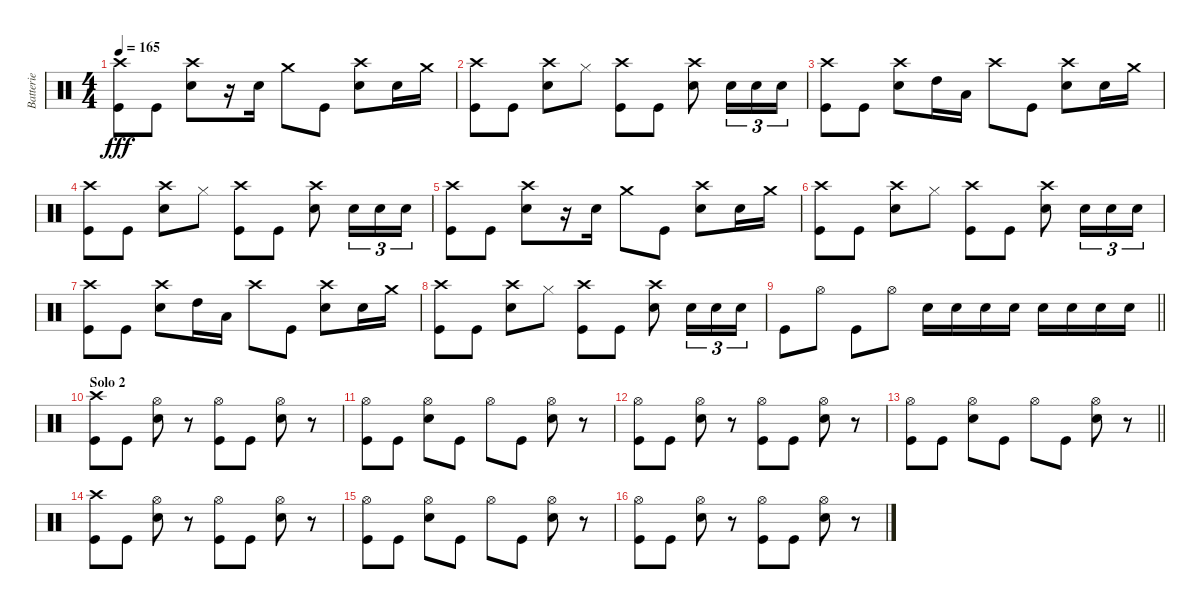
\track ("Batterie" "Batterie") {instrument percussion}
\staff {score}
\articulation defaults
\ts (4 4)
\tempo 165
\clef neutral
\ks c
("Crash high (hit)" "Kick (hit)").8{dy fff} "Kick (hit)".8 ("Crash high (hit)" "Electric Snare (hit)").8 r.16 "Snare (hit) 2".16 "Crash medium (hit)".8 "Kick (hit)".8 ("Crash high (hit)" "Electric Snare (hit)").8 "Snare (hit) 2".16 "Crash medium (hit)".16 |
("Crash high (hit)" "Kick (hit)").8 "Kick (hit)".8 ("Crash high (hit)" "Electric Snare (hit)").8 "Hi-Hat (closed)".8 ("Crash high (hit)" "Kick (hit)").8 "Kick (hit)".8 ("Crash high (hit)" "Electric Snare (hit)").8 "Electric Snare (hit)".16{tu (3 2)} "Electric Snare (hit)".16{tu (3 2)} "Electric Snare (hit)".16{tu (3 2)} |
("Crash high (hit)" "Kick (hit)").8 "Kick (hit)".8 ("Crash high (hit)" "Electric Snare (hit)").8 "High Tom (hit)".16 "Low Tom (hit)".16 "Crash high (hit)".8 "Kick (hit)".8 ("Crash high (hit)" "Electric Snare (hit)").8 "Snare (hit) 2".16 "Crash medium (hit)".16 |
("Crash high (hit)" "Kick (hit)").8 "Kick (hit)".8 ("Crash high (hit)" "Electric Snare (hit)").8 "Hi-Hat (closed)".8 ("Crash high (hit)" "Kick (hit)").8 "Kick (hit)".8 ("Crash high (hit)" "Electric Snare (hit)").8 "Electric Snare (hit)".16{tu (3 2)} "Electric Snare (hit)".16{tu (3 2)} "Electric Snare (hit)".16{tu (3 2)} |
("Crash high (hit)" "Kick (hit)").8 "Kick (hit)".8 ("Crash high (hit)" "Electric Snare (hit)").8 r.16 "Snare (hit) 2".16 "Crash medium (hit)".8 "Kick (hit)".8 ("Crash high (hit)" "Electric Snare (hit)").8 "Snare (hit) 2".16 "Crash medium (hit)".16 |
("Crash high (hit)" "Kick (hit)").8 "Kick (hit)".8 ("Crash high (hit)" "Electric Snare (hit)").8 "Hi-Hat (closed)".8 ("Crash high (hit)" "Kick (hit)").8 "Kick (hit)".8 ("Crash high (hit)" "Electric Snare (hit)").8 "Electric Snare (hit)".16{tu (3 2)} "Electric Snare (hit)".16{tu (3 2)} "Electric Snare (hit)".16{tu (3 2)} |
("Crash high (hit)" "Kick (hit)").8 "Kick (hit)".8 ("Crash high (hit)" "Electric Snare (hit)").8 "High Tom (hit)".16 "Low Tom (hit)".16 "Crash high (hit)".8 "Kick (hit)".8 ("Crash high (hit)" "Electric Snare (hit)").8 "Snare (hit) 2".16 "Crash medium (hit)".16 |
("Crash high (hit)" "Kick (hit)").8 "Kick (hit)".8 ("Crash high (hit)" "Electric Snare (hit)").8 "Hi-Hat (closed)".8 ("Crash high (hit)" "Kick (hit)").8 "Kick (hit)".8 ("Crash high (hit)" "Electric Snare (hit)").8 "Electric Snare (hit)".16{tu (3 2)} "Electric Snare (hit)".16{tu (3 2)} "Electric Snare (hit)".16{tu (3 2)} |
\barLineRight lightlight "Kick (hit)".8 "Hi-Hat (open)".8 "Kick (hit)".8 "Hi-Hat (open)".8 "Electric Snare (hit)".16 "Electric Snare (hit)".16 "Electric Snare (hit)".16 "Electric Snare (hit)".16 "Electric Snare (hit)".16 "Electric Snare (hit)".16 "Electric Snare (hit)".16 "Electric Snare (hit)".16
|
\section ("" "Solo 2")
("Crash high (hit)" "Kick (hit)").8 "Kick (hit)".8 ("Hi-Hat (open)" "Electric Snare (hit)").8 r.8 ("Hi-Hat (open)" "Kick (hit)").8 "Kick (hit)".8 ("Hi-Hat (open)" "Electric Snare (hit)").8 r.8 |
("Hi-Hat (open)" "Kick (hit)").8 "Kick (hit)".8 ("Hi-Hat (open)" "Electric Snare (hit)").8 "Kick (hit)".8 "Hi-Hat (open)".8 "Kick (hit)".8 ("Hi-Hat (open)" "Electric Snare (hit)").8 r.8 |
("Hi-Hat (open)" "Kick (hit)").8 "Kick (hit)".8 ("Hi-Hat (open)" "Electric Snare (hit)").8 r.8 ("Hi-Hat (open)" "Kick (hit)").8 "Kick (hit)".8 ("Hi-Hat (open)" "Electric Snare (hit)").8 r.8 |
\barLineRight lightlight
("Hi-Hat (open)" "Kick (hit)").8 "Kick (hit)".8 ("Hi-Hat (open)" "Electric Snare (hit)").8 "Kick (hit)".8 "Hi-Hat (open)".8 "Kick (hit)".8 ("Hi-Hat (open)" "Electric Snare (hit)").8 r.8 |
("Crash high (hit)" "Kick (hit)").8 "Kick (hit)".8 ("Hi-Hat (open)" "Electric Snare (hit)").8 r.8 ("Hi-Hat (open)" "Kick (hit)").8 "Kick (hit)".8 ("Hi-Hat (open)" "Electric Snare (hit)").8 r.8 |
("Hi-Hat (open)" "Kick (hit)").8 "Kick (hit)".8 ("Hi-Hat (open)" "Electric Snare (hit)").8 "Kick (hit)".8 "Hi-Hat (open)".8 "Kick (hit)".8 ("Hi-Hat (open)" "Electric Snare (hit)").8 r.8 |
("Hi-Hat (open)" "Kick (hit)").8 "Kick (hit)".8 ("Hi-Hat (open)" "Electric Snare (hit)").8 r.8 ("Hi-Hat (open)" "Kick (hit)").8 "Kick (hit)".8 ("Hi-Hat (open)" "Electric Snare (hit)").8 r.8
